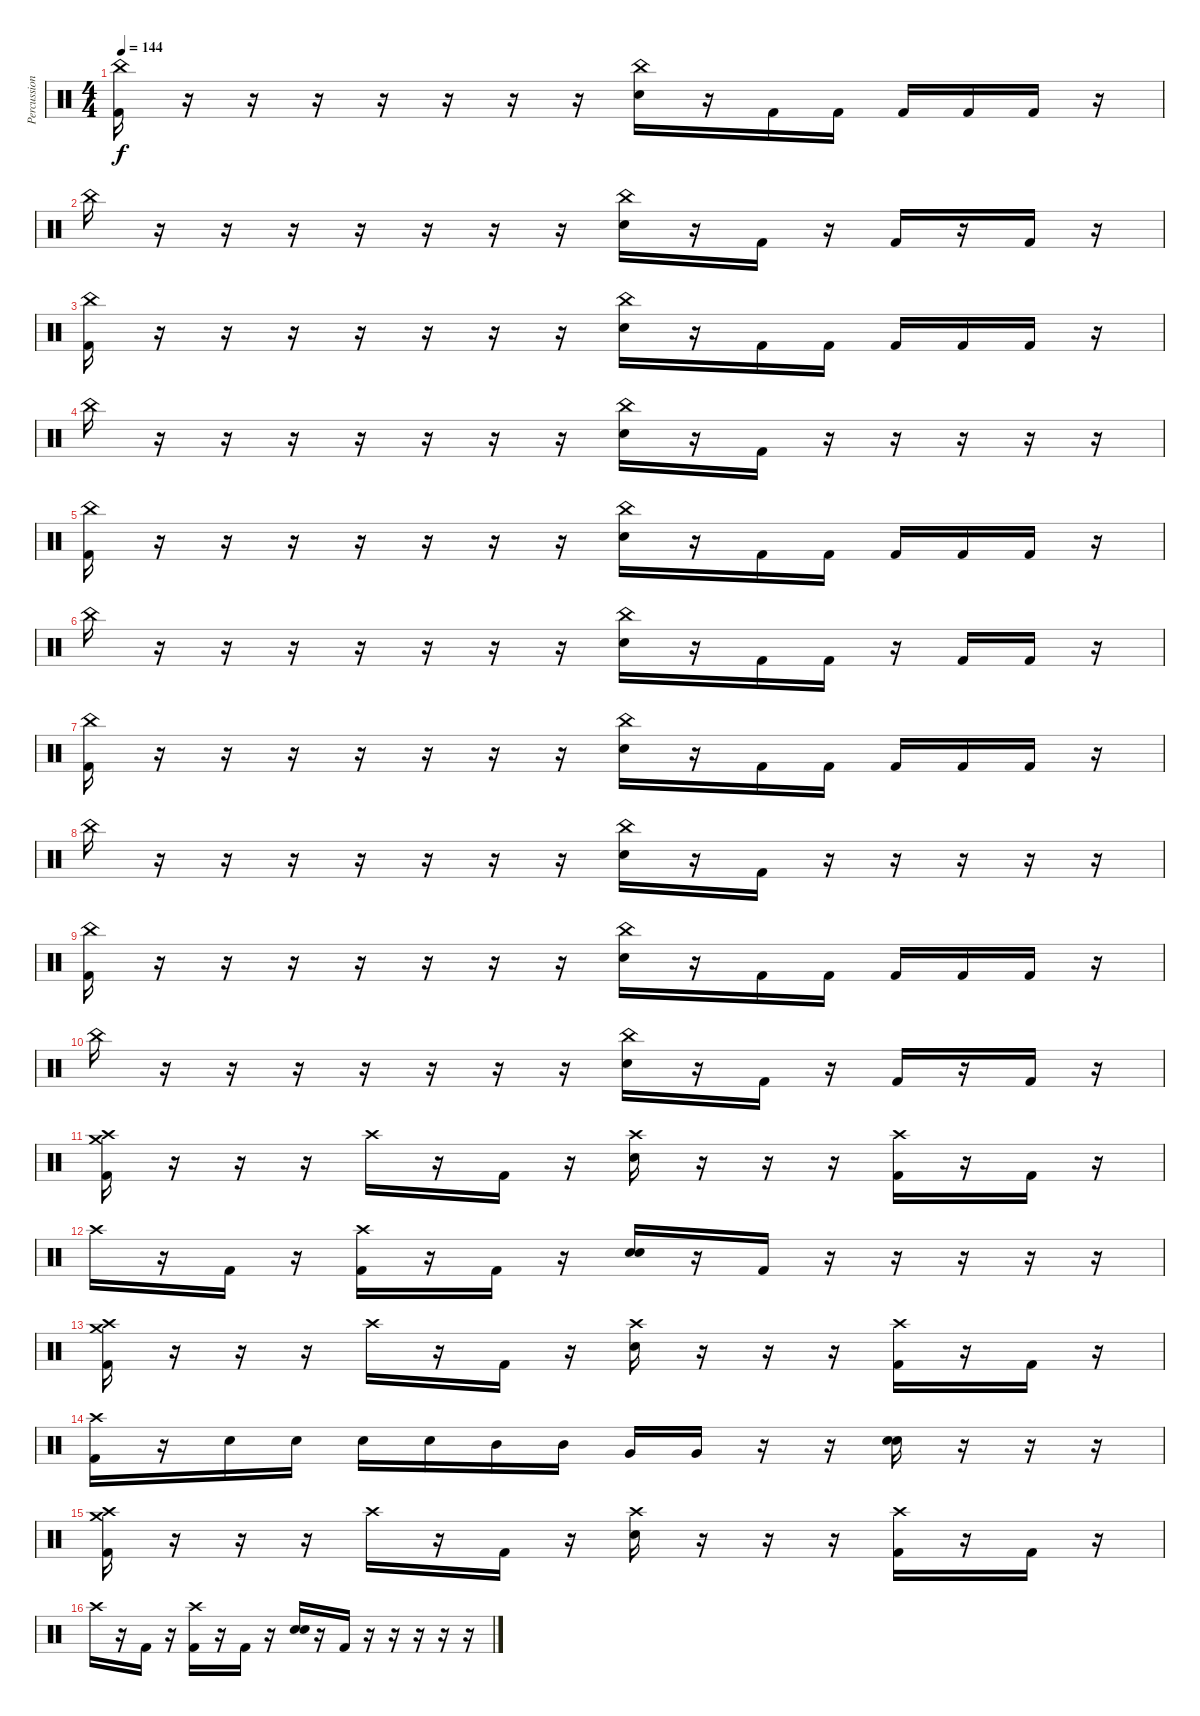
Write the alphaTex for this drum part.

\track ("Percussion" "Percussion") {instrument percussion}
\staff {score}
\articulation defaults
\ts (4 4)
\tempo 144
\clef neutral
\ks c
("China (hit)" "Kick (hit) 2").16{dy f} r.16 r.16 r.16 r.16 r.16 r.16 r.16 ("China (hit)" "Electric Snare (hit)").16 r.16 "Kick (hit) 2".16 "Kick (hit) 2".16 "Kick (hit) 2".16 "Kick (hit) 2".16 "Kick (hit) 2".16 r.16 |
"China (hit)".16 r.16 r.16 r.16 r.16 r.16 r.16 r.16 ("China (hit)" "Electric Snare (hit)").16 r.16 "Kick (hit) 2".16 r.16 "Kick (hit) 2".16 r.16 "Kick (hit) 2".16 r.16 |
("China (hit)" "Kick (hit) 2").16 r.16 r.16 r.16 r.16 r.16 r.16 r.16 ("China (hit)" "Electric Snare (hit)").16 r.16 "Kick (hit) 2".16 "Kick (hit) 2".16 "Kick (hit) 2".16 "Kick (hit) 2".16 "Kick (hit) 2".16 r.16 |
"China (hit)".16 r.16 r.16 r.16 r.16 r.16 r.16 r.16 ("China (hit)" "Electric Snare (hit)").16 r.16 "Kick (hit) 2".16 r.16 r.16 r.16 r.16 r.16 |
("China (hit)" "Kick (hit) 2").16 r.16 r.16 r.16 r.16 r.16 r.16 r.16 ("China (hit)" "Electric Snare (hit)").16 r.16 "Kick (hit) 2".16 "Kick (hit) 2".16 "Kick (hit) 2".16 "Kick (hit) 2".16 "Kick (hit) 2".16 r.16 |
"China (hit)".16 r.16 r.16 r.16 r.16 r.16 r.16 r.16 ("China (hit)" "Electric Snare (hit)").16 r.16 "Kick (hit) 2".16 "Kick (hit) 2".16 r.16 "Kick (hit) 2".16 "Kick (hit) 2".16 r.16 |
("China (hit)" "Kick (hit) 2").16 r.16 r.16 r.16 r.16 r.16 r.16 r.16 ("China (hit)" "Electric Snare (hit)").16 r.16 "Kick (hit) 2".16 "Kick (hit) 2".16 "Kick (hit) 2".16 "Kick (hit) 2".16 "Kick (hit) 2".16 r.16 |
"China (hit)".16 r.16 r.16 r.16 r.16 r.16 r.16 r.16 ("China (hit)" "Electric Snare (hit)").16 r.16 "Kick (hit) 2".16 r.16 r.16 r.16 r.16 r.16 |
("China (hit)" "Kick (hit) 2").16 r.16 r.16 r.16 r.16 r.16 r.16 r.16 ("China (hit)" "Electric Snare (hit)").16 r.16 "Kick (hit) 2".16 "Kick (hit) 2".16 "Kick (hit) 2".16 "Kick (hit) 2".16 "Kick (hit) 2".16 r.16 |
"China (hit)".16 r.16 r.16 r.16 r.16 r.16 r.16 r.16 ("China (hit)" "Electric Snare (hit)").16 r.16 "Kick (hit) 2".16 r.16 "Kick (hit) 2".16 r.16 "Kick (hit) 2".16 r.16 |
("Crash medium (hit)" "Crash high (hit)" "Kick (hit) 2").16 r.16 r.16 r.16 "Crash high (hit)".16 r.16 "Kick (hit) 2".16 r.16 ("Crash high (hit)" "Electric Snare (hit)").16 r.16 r.16 r.16 ("Crash high (hit)" "Kick (hit) 2").16 r.16 "Kick (hit) 2".16 r.16 |
"Crash high (hit)".16 r.16 "Kick (hit) 2".16 r.16 ("Crash high (hit)" "Kick (hit) 2").16 r.16 "Kick (hit) 2".16 r.16 ("Electric Snare (hit)" "Electric Snare (hit)").16{bd 480} r.16 "Kick (hit) 2".16 r.16 r.16 r.16 r.16 r.16 |
("Crash medium (hit)" "Crash high (hit)" "Kick (hit) 2").16 r.16 r.16 r.16 "Crash high (hit)".16 r.16 "Kick (hit) 2".16 r.16 ("Crash high (hit)" "Electric Snare (hit)").16 r.16 r.16 r.16 ("Crash high (hit)" "Kick (hit) 2").16 r.16 "Kick (hit) 2".16 r.16 |
("Crash high (hit)" "Kick (hit) 2").16 r.16 "Electric Snare (hit)".16 "Electric Snare (hit)".16 "Electric Snare (hit)".16 "Electric Snare (hit)".16 "Mid Tom (hit)".16 "Mid Tom (hit)".16 "Very Low Tom (hit)".16 "Very Low Tom (hit)".16 r.16 r.16 ("Electric Snare (hit)" "Electric Snare (hit)").16{bd 480} r.16 r.16 r.16 |
("Crash medium (hit)" "Crash high (hit)" "Kick (hit) 2").16 r.16 r.16 r.16 "Crash high (hit)".16 r.16 "Kick (hit) 2".16 r.16 ("Crash high (hit)" "Electric Snare (hit)").16 r.16 r.16 r.16 ("Crash high (hit)" "Kick (hit) 2").16 r.16 "Kick (hit) 2".16 r.16 |
"Crash high (hit)".16 r.16 "Kick (hit) 2".16 r.16 ("Crash high (hit)" "Kick (hit) 2").16 r.16 "Kick (hit) 2".16 r.16 ("Electric Snare (hit)" "Electric Snare (hit)").16{bd 480} r.16 "Kick (hit) 2".16 r.16 r.16 r.16 r.16 r.16
